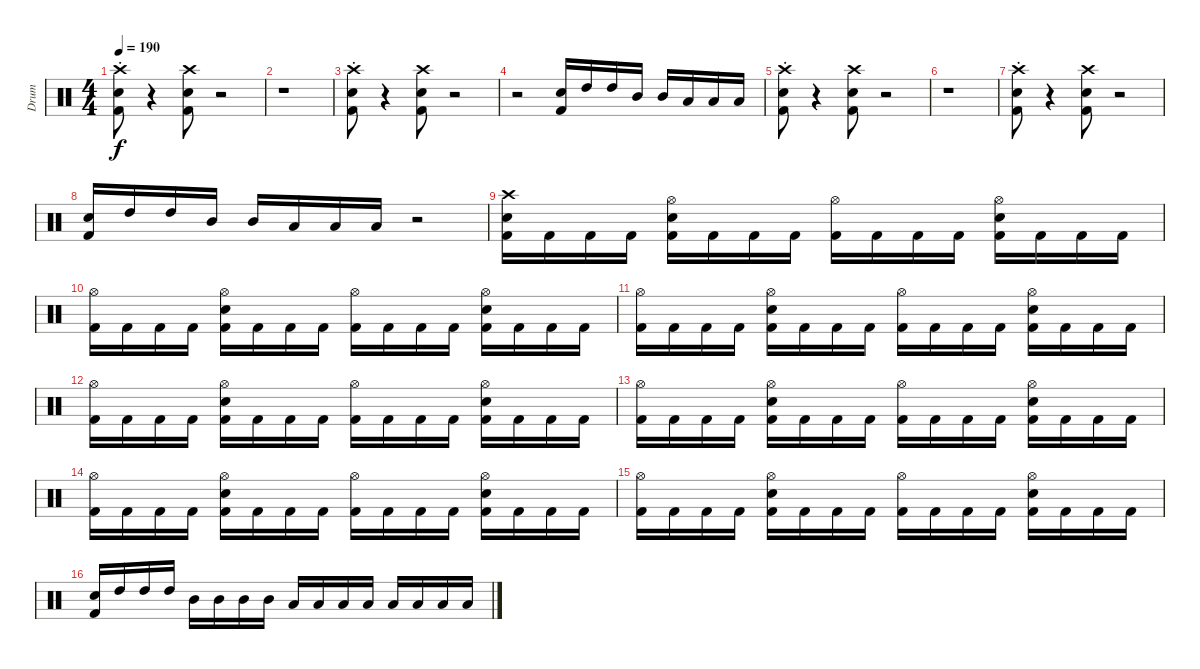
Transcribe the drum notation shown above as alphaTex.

\track ("Drum" "Drum") {instrument percussion}
\staff {score}
\articulation defaults
\ts (4 4)
\tempo 190
\clef neutral
\ks c
("Crash high (hit)"{st} "Snare (hit) 2" "Kick (hit) 2").8{dy f} r.4 ("Crash high (hit)" "Snare (hit) 2" "Kick (hit) 2").8 r.2 |
r.1 |
("Crash high (hit)"{st} "Snare (hit) 2" "Kick (hit) 2").8 r.4 ("Crash high (hit)" "Snare (hit) 2" "Kick (hit) 2").8 r.2 |
r.2 ("Snare (hit) 2" "Kick (hit) 2").16 "High Tom (hit)".16 "High Tom (hit)".16 "Mid Tom (hit)".16 "Mid Tom (hit)".16 "Low Tom (hit)".16 "Low Tom (hit)".16 "Low Floor Tom (hit)".16 |
("Crash high (hit)"{st} "Snare (hit) 2" "Kick (hit) 2").8 r.4 ("Crash high (hit)" "Snare (hit) 2" "Kick (hit) 2").8 r.2 |
r.1 |
("Crash high (hit)"{st} "Snare (hit) 2" "Kick (hit) 2").8 r.4 ("Crash high (hit)" "Snare (hit) 2" "Kick (hit) 2").8 r.2 |
("Snare (hit) 2" "Kick (hit) 2").16 "High Tom (hit)".16 "High Tom (hit)".16 "Mid Tom (hit)".16 "Mid Tom (hit)".16 "Low Tom (hit)".16 "Low Tom (hit)".16 "Low Floor Tom (hit)".16 r.2 |
("Crash high (hit)" "Snare (hit) 2" "Kick (hit) 2").16 "Kick (hit) 2".16 "Kick (hit) 2".16 "Kick (hit) 2".16 ("Hi-Hat (open)" "Snare (hit) 2" "Kick (hit) 2").16 "Kick (hit) 2".16 "Kick (hit) 2".16 "Kick (hit) 2".16 ("Hi-Hat (open)" "Kick (hit) 2").16 "Kick (hit) 2".16 "Kick (hit) 2".16 "Kick (hit) 2".16 ("Hi-Hat (open)" "Snare (hit) 2" "Kick (hit) 2").16 "Kick (hit) 2".16 "Kick (hit) 2".16 "Kick (hit) 2".16 |
("Hi-Hat (open)" "Kick (hit) 2").16 "Kick (hit) 2".16 "Kick (hit) 2".16 "Kick (hit) 2".16 ("Hi-Hat (open)" "Snare (hit) 2" "Kick (hit) 2").16 "Kick (hit) 2".16 "Kick (hit) 2".16 "Kick (hit) 2".16 ("Hi-Hat (open)" "Kick (hit) 2").16 "Kick (hit) 2".16 "Kick (hit) 2".16 "Kick (hit) 2".16 ("Hi-Hat (open)" "Snare (hit) 2" "Kick (hit) 2").16 "Kick (hit) 2".16 "Kick (hit) 2".16 "Kick (hit) 2".16 |
("Hi-Hat (open)" "Kick (hit) 2").16 "Kick (hit) 2".16 "Kick (hit) 2".16 "Kick (hit) 2".16 ("Hi-Hat (open)" "Snare (hit) 2" "Kick (hit) 2").16 "Kick (hit) 2".16 "Kick (hit) 2".16 "Kick (hit) 2".16 ("Hi-Hat (open)" "Kick (hit) 2").16 "Kick (hit) 2".16 "Kick (hit) 2".16 "Kick (hit) 2".16 ("Hi-Hat (open)" "Snare (hit) 2" "Kick (hit) 2").16 "Kick (hit) 2".16 "Kick (hit) 2".16 "Kick (hit) 2".16 |
("Hi-Hat (open)" "Kick (hit) 2").16 "Kick (hit) 2".16 "Kick (hit) 2".16 "Kick (hit) 2".16 ("Hi-Hat (open)" "Snare (hit) 2" "Kick (hit) 2").16 "Kick (hit) 2".16 "Kick (hit) 2".16 "Kick (hit) 2".16 ("Hi-Hat (open)" "Kick (hit) 2").16 "Kick (hit) 2".16 "Kick (hit) 2".16 "Kick (hit) 2".16 ("Hi-Hat (open)" "Snare (hit) 2" "Kick (hit) 2").16 "Kick (hit) 2".16 "Kick (hit) 2".16 "Kick (hit) 2".16 |
("Hi-Hat (open)" "Kick (hit) 2").16 "Kick (hit) 2".16 "Kick (hit) 2".16 "Kick (hit) 2".16 ("Hi-Hat (open)" "Snare (hit) 2" "Kick (hit) 2").16 "Kick (hit) 2".16 "Kick (hit) 2".16 "Kick (hit) 2".16 ("Hi-Hat (open)" "Kick (hit) 2").16 "Kick (hit) 2".16 "Kick (hit) 2".16 "Kick (hit) 2".16 ("Hi-Hat (open)" "Snare (hit) 2" "Kick (hit) 2").16 "Kick (hit) 2".16 "Kick (hit) 2".16 "Kick (hit) 2".16 |
("Hi-Hat (open)" "Kick (hit) 2").16 "Kick (hit) 2".16 "Kick (hit) 2".16 "Kick (hit) 2".16 ("Hi-Hat (open)" "Snare (hit) 2" "Kick (hit) 2").16 "Kick (hit) 2".16 "Kick (hit) 2".16 "Kick (hit) 2".16 ("Hi-Hat (open)" "Kick (hit) 2").16 "Kick (hit) 2".16 "Kick (hit) 2".16 "Kick (hit) 2".16 ("Hi-Hat (open)" "Snare (hit) 2" "Kick (hit) 2").16 "Kick (hit) 2".16 "Kick (hit) 2".16 "Kick (hit) 2".16 |
("Hi-Hat (open)" "Kick (hit) 2").16 "Kick (hit) 2".16 "Kick (hit) 2".16 "Kick (hit) 2".16 ("Hi-Hat (open)" "Snare (hit) 2" "Kick (hit) 2").16 "Kick (hit) 2".16 "Kick (hit) 2".16 "Kick (hit) 2".16 ("Hi-Hat (open)" "Kick (hit) 2").16 "Kick (hit) 2".16 "Kick (hit) 2".16 "Kick (hit) 2".16 ("Hi-Hat (open)" "Snare (hit) 2" "Kick (hit) 2").16 "Kick (hit) 2".16 "Kick (hit) 2".16 "Kick (hit) 2".16 |
("Snare (hit) 2" "Kick (hit) 2").16 "High Tom (hit)".16 "High Tom (hit)".16 "High Tom (hit)".16 "Mid Tom (hit)".16 "Mid Tom (hit)".16 "Mid Tom (hit)".16 "Mid Tom (hit)".16 "Low Tom (hit)".16 "Low Tom (hit)".16 "Low Tom (hit)".16 "Low Tom (hit)".16 "Low Floor Tom (hit)".16 "Low Floor Tom (hit)".16 "Low Floor Tom (hit)".16 "Low Floor Tom (hit)".16
